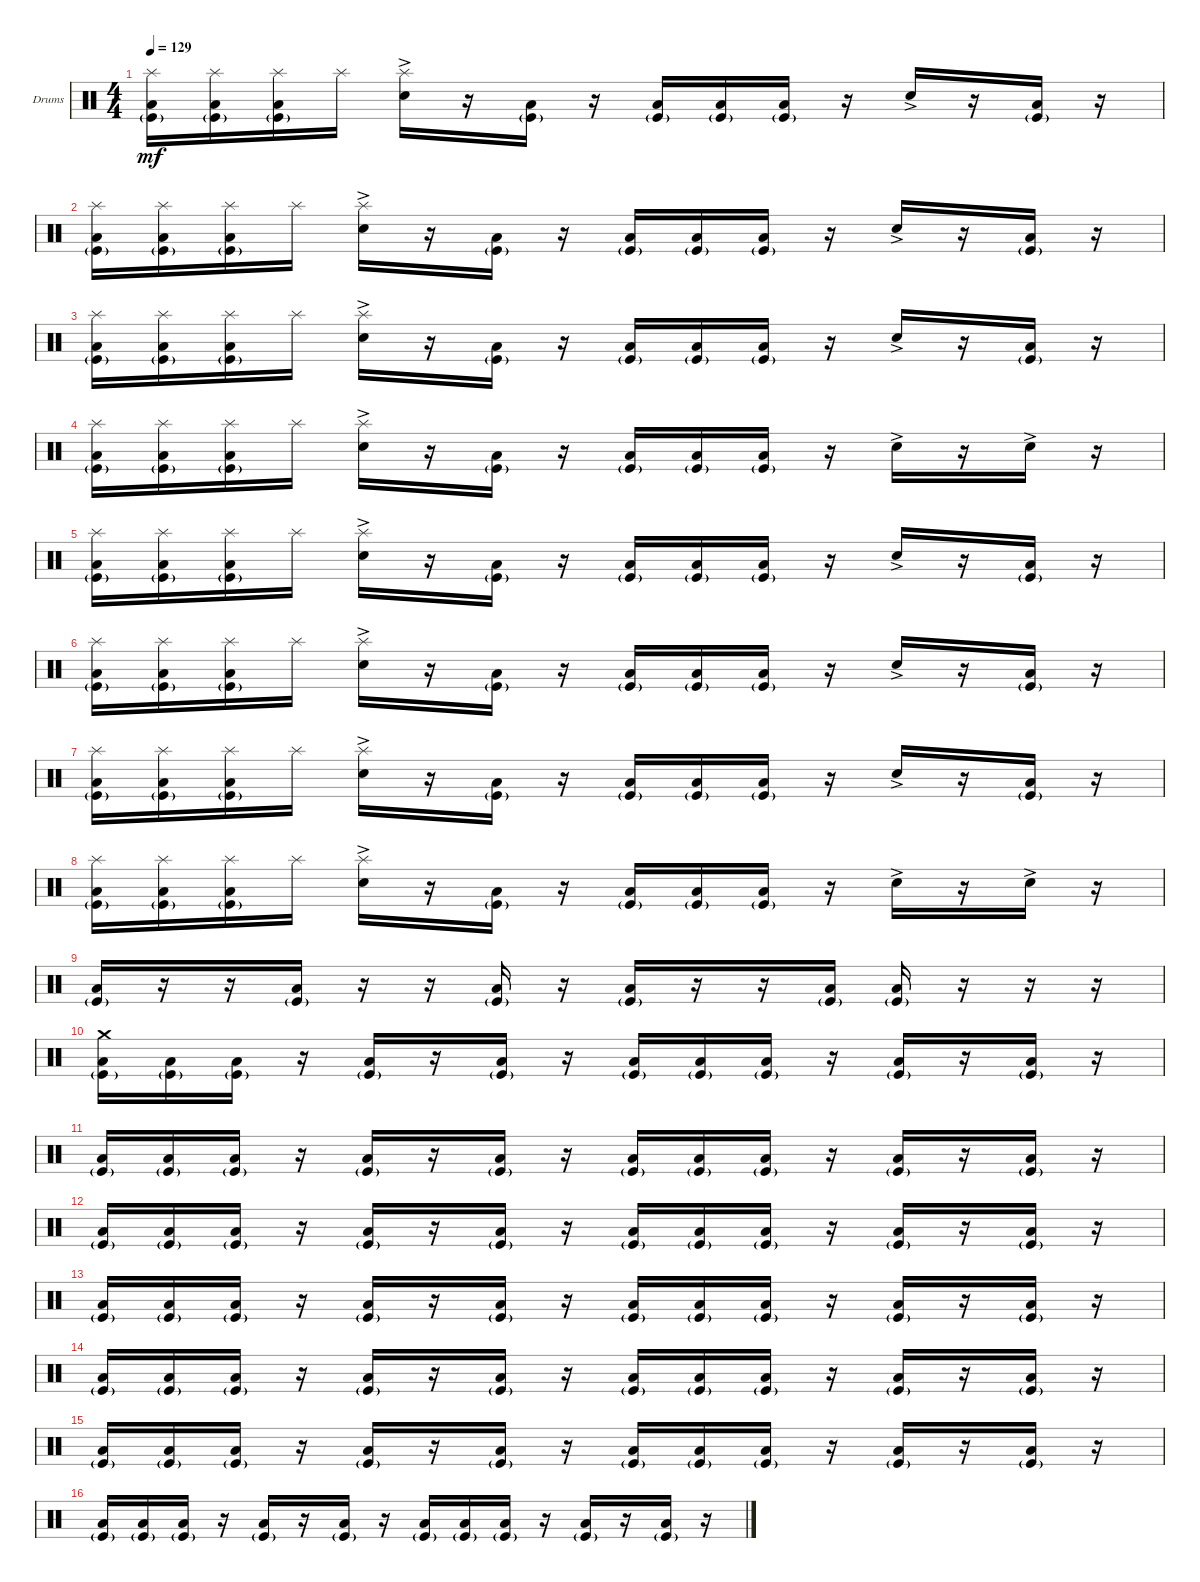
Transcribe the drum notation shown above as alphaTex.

\defaultSystemsLayout 4
\bracketExtendMode groupsimilarinstruments
\firstSystemTrackNameOrientation horizontal
\otherSystemsTrackNameOrientation horizontal
\track ("Drums" "Drums") {instrument percussion}
\staff {score}
\articulation defaults
\ts (4 4)
\tempo 129
\clef neutral
\ks c
("Kick (hit)"{g} "Low Tom (hit)" "Splash (hit)").16{dy mf} ("Kick (hit)"{g} "Low Tom (hit)" "Splash (hit)").16 ("Kick (hit)"{g} "Low Tom (hit)" "Splash (hit)").16 "Splash (hit)".16 ("Snare (hit) 2"{ac} "Splash (hit)").16 r.16 ("Kick (hit)"{g} "Low Tom (hit)").16 r.16 ("Kick (hit)"{g} "Low Tom (hit)").16 ("Kick (hit)"{g} "Low Tom (hit)").16 ("Kick (hit)"{g} "Low Tom (hit)").16 r.16 "Snare (hit) 2"{ac}.16 r.16 ("Kick (hit)"{g} "Low Tom (hit)").16 r.16 |
("Kick (hit)"{g} "Low Tom (hit)" "Splash (hit)").16 ("Kick (hit)"{g} "Low Tom (hit)" "Splash (hit)").16 ("Kick (hit)"{g} "Low Tom (hit)" "Splash (hit)").16 "Splash (hit)".16 ("Snare (hit) 2"{ac} "Splash (hit)").16 r.16 ("Kick (hit)"{g} "Low Tom (hit)").16 r.16 ("Kick (hit)"{g} "Low Tom (hit)").16 ("Kick (hit)"{g} "Low Tom (hit)").16 ("Kick (hit)"{g} "Low Tom (hit)").16 r.16 "Snare (hit) 2"{ac}.16 r.16 ("Kick (hit)"{g} "Low Tom (hit)").16 r.16 |
("Kick (hit)"{g} "Low Tom (hit)" "Splash (hit)").16 ("Kick (hit)"{g} "Low Tom (hit)" "Splash (hit)").16 ("Kick (hit)"{g} "Low Tom (hit)" "Splash (hit)").16 "Splash (hit)".16 ("Snare (hit) 2"{ac} "Splash (hit)").16 r.16 ("Kick (hit)"{g} "Low Tom (hit)").16 r.16 ("Kick (hit)"{g} "Low Tom (hit)").16 ("Kick (hit)"{g} "Low Tom (hit)").16 ("Kick (hit)"{g} "Low Tom (hit)").16 r.16 "Snare (hit) 2"{ac}.16 r.16 ("Kick (hit)"{g} "Low Tom (hit)").16 r.16 |
("Kick (hit)"{g} "Low Tom (hit)" "Splash (hit)").16 ("Kick (hit)"{g} "Low Tom (hit)" "Splash (hit)").16 ("Kick (hit)"{g} "Low Tom (hit)" "Splash (hit)").16 "Splash (hit)".16 ("Snare (hit) 2"{ac} "Splash (hit)").16 r.16 ("Kick (hit)"{g} "Low Tom (hit)").16 r.16 ("Kick (hit)"{g} "Low Tom (hit)").16 ("Kick (hit)"{g} "Low Tom (hit)").16 ("Kick (hit)"{g} "Low Tom (hit)").16 r.16 "Snare (hit) 2"{ac}.16 r.16 "Snare (hit) 2"{ac}.16 r.16 |
("Kick (hit)"{g} "Low Tom (hit)" "Splash (hit)").16 ("Kick (hit)"{g} "Low Tom (hit)" "Splash (hit)").16 ("Kick (hit)"{g} "Low Tom (hit)" "Splash (hit)").16 "Splash (hit)".16 ("Snare (hit) 2"{ac} "Splash (hit)").16 r.16 ("Kick (hit)"{g} "Low Tom (hit)").16 r.16 ("Kick (hit)"{g} "Low Tom (hit)").16 ("Kick (hit)"{g} "Low Tom (hit)").16 ("Kick (hit)"{g} "Low Tom (hit)").16 r.16 "Snare (hit) 2"{ac}.16 r.16 ("Kick (hit)"{g} "Low Tom (hit)").16 r.16 |
("Kick (hit)"{g} "Low Tom (hit)" "Splash (hit)").16 ("Kick (hit)"{g} "Low Tom (hit)" "Splash (hit)").16 ("Kick (hit)"{g} "Low Tom (hit)" "Splash (hit)").16 "Splash (hit)".16 ("Snare (hit) 2"{ac} "Splash (hit)").16 r.16 ("Kick (hit)"{g} "Low Tom (hit)").16 r.16 ("Kick (hit)"{g} "Low Tom (hit)").16 ("Kick (hit)"{g} "Low Tom (hit)").16 ("Kick (hit)"{g} "Low Tom (hit)").16 r.16 "Snare (hit) 2"{ac}.16 r.16 ("Kick (hit)"{g} "Low Tom (hit)").16 r.16 |
("Kick (hit)"{g} "Low Tom (hit)" "Splash (hit)").16 ("Kick (hit)"{g} "Low Tom (hit)" "Splash (hit)").16 ("Kick (hit)"{g} "Low Tom (hit)" "Splash (hit)").16 "Splash (hit)".16 ("Snare (hit) 2"{ac} "Splash (hit)").16 r.16 ("Kick (hit)"{g} "Low Tom (hit)").16 r.16 ("Kick (hit)"{g} "Low Tom (hit)").16 ("Kick (hit)"{g} "Low Tom (hit)").16 ("Kick (hit)"{g} "Low Tom (hit)").16 r.16 "Snare (hit) 2"{ac}.16 r.16 ("Kick (hit)"{g} "Low Tom (hit)").16 r.16 |
("Kick (hit)"{g} "Low Tom (hit)" "Splash (hit)").16 ("Kick (hit)"{g} "Low Tom (hit)" "Splash (hit)").16 ("Kick (hit)"{g} "Low Tom (hit)" "Splash (hit)").16 "Splash (hit)".16 ("Snare (hit) 2"{ac} "Splash (hit)").16 r.16 ("Kick (hit)"{g} "Low Tom (hit)").16 r.16 ("Kick (hit)"{g} "Low Tom (hit)").16 ("Kick (hit)"{g} "Low Tom (hit)").16 ("Kick (hit)"{g} "Low Tom (hit)").16 r.16 "Snare (hit) 2"{ac}.16 r.16 "Snare (hit) 2"{ac}.16 r.16 |
("Kick (hit)"{g} "Low Tom (hit)").16 r.16 r.16 ("Kick (hit)"{g} "Low Tom (hit)").16 r.16 r.16 ("Kick (hit)"{g} "Low Tom (hit)").16 r.16 ("Kick (hit)"{g} "Low Tom (hit)").16 r.16 r.16 ("Kick (hit)"{g} "Low Tom (hit)").16 ("Kick (hit)"{g} "Low Tom (hit)").16 r.16 r.16 r.16 |
("Kick (hit)"{g} "Low Tom (hit)" "Crash medium (hit)").16 ("Kick (hit)"{g} "Low Tom (hit)").16 ("Kick (hit)"{g} "Low Tom (hit)").16 r.16 ("Kick (hit)"{g} "Low Tom (hit)").16 r.16 ("Kick (hit)"{g} "Low Tom (hit)").16 r.16 ("Kick (hit)"{g} "Low Tom (hit)").16 ("Kick (hit)"{g} "Low Tom (hit)").16 ("Kick (hit)"{g} "Low Tom (hit)").16 r.16 ("Kick (hit)"{g} "Low Tom (hit)").16 r.16 ("Kick (hit)"{g} "Low Tom (hit)").16 r.16 |
("Kick (hit)"{g} "Low Tom (hit)").16 ("Kick (hit)"{g} "Low Tom (hit)").16 ("Kick (hit)"{g} "Low Tom (hit)").16 r.16 ("Kick (hit)"{g} "Low Tom (hit)").16 r.16 ("Kick (hit)"{g} "Low Tom (hit)").16 r.16 ("Kick (hit)"{g} "Low Tom (hit)").16 ("Kick (hit)"{g} "Low Tom (hit)").16 ("Kick (hit)"{g} "Low Tom (hit)").16 r.16 ("Kick (hit)"{g} "Low Tom (hit)").16 r.16 ("Kick (hit)"{g} "Low Tom (hit)").16 r.16 |
("Kick (hit)"{g} "Low Tom (hit)").16 ("Kick (hit)"{g} "Low Tom (hit)").16 ("Kick (hit)"{g} "Low Tom (hit)").16 r.16 ("Kick (hit)"{g} "Low Tom (hit)").16 r.16 ("Kick (hit)"{g} "Low Tom (hit)").16 r.16 ("Kick (hit)"{g} "Low Tom (hit)").16 ("Kick (hit)"{g} "Low Tom (hit)").16 ("Kick (hit)"{g} "Low Tom (hit)").16 r.16 ("Kick (hit)"{g} "Low Tom (hit)").16 r.16 ("Kick (hit)"{g} "Low Tom (hit)").16 r.16 |
("Kick (hit)"{g} "Low Tom (hit)").16 ("Kick (hit)"{g} "Low Tom (hit)").16 ("Kick (hit)"{g} "Low Tom (hit)").16 r.16 ("Kick (hit)"{g} "Low Tom (hit)").16 r.16 ("Kick (hit)"{g} "Low Tom (hit)").16 r.16 ("Kick (hit)"{g} "Low Tom (hit)").16 ("Kick (hit)"{g} "Low Tom (hit)").16 ("Kick (hit)"{g} "Low Tom (hit)").16 r.16 ("Kick (hit)"{g} "Low Tom (hit)").16 r.16 ("Kick (hit)"{g} "Low Tom (hit)").16 r.16 |
("Kick (hit)"{g} "Low Tom (hit)").16 ("Kick (hit)"{g} "Low Tom (hit)").16 ("Kick (hit)"{g} "Low Tom (hit)").16 r.16 ("Kick (hit)"{g} "Low Tom (hit)").16 r.16 ("Kick (hit)"{g} "Low Tom (hit)").16 r.16 ("Kick (hit)"{g} "Low Tom (hit)").16 ("Kick (hit)"{g} "Low Tom (hit)").16 ("Kick (hit)"{g} "Low Tom (hit)").16 r.16 ("Kick (hit)"{g} "Low Tom (hit)").16 r.16 ("Kick (hit)"{g} "Low Tom (hit)").16 r.16 |
("Kick (hit)"{g} "Low Tom (hit)").16 ("Kick (hit)"{g} "Low Tom (hit)").16 ("Kick (hit)"{g} "Low Tom (hit)").16 r.16 ("Kick (hit)"{g} "Low Tom (hit)").16 r.16 ("Kick (hit)"{g} "Low Tom (hit)").16 r.16 ("Kick (hit)"{g} "Low Tom (hit)").16 ("Kick (hit)"{g} "Low Tom (hit)").16 ("Kick (hit)"{g} "Low Tom (hit)").16 r.16 ("Kick (hit)"{g} "Low Tom (hit)").16 r.16 ("Kick (hit)"{g} "Low Tom (hit)").16 r.16 |
("Kick (hit)"{g} "Low Tom (hit)").16 ("Kick (hit)"{g} "Low Tom (hit)").16 ("Kick (hit)"{g} "Low Tom (hit)").16 r.16 ("Kick (hit)"{g} "Low Tom (hit)").16 r.16 ("Kick (hit)"{g} "Low Tom (hit)").16 r.16 ("Kick (hit)"{g} "Low Tom (hit)").16 ("Kick (hit)"{g} "Low Tom (hit)").16 ("Kick (hit)"{g} "Low Tom (hit)").16 r.16 ("Kick (hit)"{g} "Low Tom (hit)").16 r.16 ("Kick (hit)"{g} "Low Tom (hit)").16 r.16
